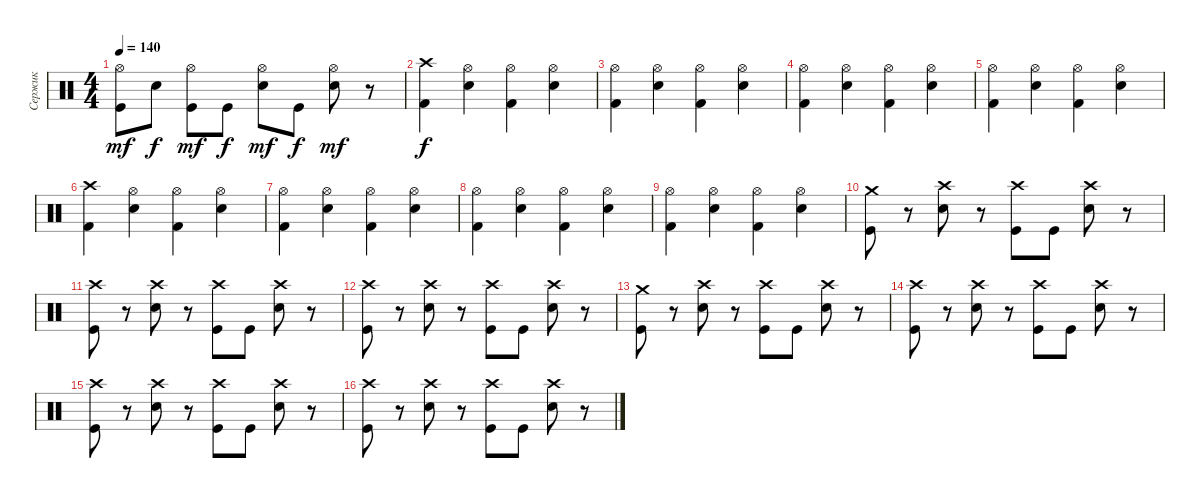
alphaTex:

\track ("Сержик" "Сержик") {instrument percussion}
\staff {score}
\articulation defaults
\ts (4 4)
\tempo 140
\clef neutral
\ks c
("Hi-Hat (open)" "Kick (hit)").8{dy mf} "Electric Snare (hit)".8{dy f} ("Hi-Hat (open)" "Kick (hit)").8{dy mf} "Kick (hit)".8{dy f} ("Hi-Hat (open)" "Electric Snare (hit)").8{dy mf} "Kick (hit)".8{dy f} ("Hi-Hat (open)" "Electric Snare (hit)").8{dy mf} r.8 |
("Crash high (hit)" "Kick (hit) 2").4{dy f} ("Hi-Hat (open)" "Electric Snare (hit)").4 ("Hi-Hat (open)" "Kick (hit) 2").4 ("Hi-Hat (open)" "Electric Snare (hit)").4 |
("Hi-Hat (open)" "Kick (hit) 2").4 ("Hi-Hat (open)" "Electric Snare (hit)").4 ("Hi-Hat (open)" "Kick (hit) 2").4 ("Hi-Hat (open)" "Electric Snare (hit)").4 |
("Hi-Hat (open)" "Kick (hit) 2").4 ("Hi-Hat (open)" "Electric Snare (hit)").4 ("Hi-Hat (open)" "Kick (hit) 2").4 ("Hi-Hat (open)" "Electric Snare (hit)").4 |
("Hi-Hat (open)" "Kick (hit) 2").4 ("Hi-Hat (open)" "Electric Snare (hit)").4 ("Hi-Hat (open)" "Kick (hit) 2").4 ("Hi-Hat (open)" "Electric Snare (hit)").4 |
("Crash high (hit)" "Kick (hit) 2").4 ("Hi-Hat (open)" "Electric Snare (hit)").4 ("Hi-Hat (open)" "Kick (hit) 2").4 ("Hi-Hat (open)" "Electric Snare (hit)").4 |
("Hi-Hat (open)" "Kick (hit) 2").4 ("Hi-Hat (open)" "Electric Snare (hit)").4 ("Hi-Hat (open)" "Kick (hit) 2").4 ("Hi-Hat (open)" "Electric Snare (hit)").4 |
("Hi-Hat (open)" "Kick (hit) 2").4 ("Hi-Hat (open)" "Electric Snare (hit)").4 ("Hi-Hat (open)" "Kick (hit) 2").4 ("Hi-Hat (open)" "Electric Snare (hit)").4 |
("Hi-Hat (open)" "Kick (hit) 2").4 ("Hi-Hat (open)" "Electric Snare (hit)").4 ("Hi-Hat (open)" "Kick (hit) 2").4 ("Hi-Hat (open)" "Electric Snare (hit)").4 |
("Crash medium (hit)" "Kick (hit)").8 r.8 ("Crash high (hit)" "Electric Snare (hit)").8 r.8 ("Crash high (hit)" "Kick (hit)").8 "Kick (hit)".8 ("Crash high (hit)" "Electric Snare (hit)").8 r.8 |
("Crash high (hit)" "Kick (hit)").8 r.8 ("Crash high (hit)" "Electric Snare (hit)").8 r.8 ("Crash high (hit)" "Kick (hit)").8 "Kick (hit)".8 ("Crash high (hit)" "Electric Snare (hit)").8 r.8 |
("Crash high (hit)" "Kick (hit)").8 r.8 ("Crash high (hit)" "Electric Snare (hit)").8 r.8 ("Crash high (hit)" "Kick (hit)").8 "Kick (hit)".8 ("Crash high (hit)" "Electric Snare (hit)").8 r.8 |
("Crash medium (hit)" "Kick (hit)").8 r.8 ("Crash high (hit)" "Electric Snare (hit)").8 r.8 ("Crash high (hit)" "Kick (hit)").8 "Kick (hit)".8 ("Crash high (hit)" "Electric Snare (hit)").8 r.8 |
("Crash high (hit)" "Kick (hit)").8 r.8 ("Crash high (hit)" "Electric Snare (hit)").8 r.8 ("Crash high (hit)" "Kick (hit)").8 "Kick (hit)".8 ("Crash high (hit)" "Electric Snare (hit)").8 r.8 |
("Crash high (hit)" "Kick (hit)").8 r.8 ("Crash high (hit)" "Electric Snare (hit)").8 r.8 ("Crash high (hit)" "Kick (hit)").8 "Kick (hit)".8 ("Crash high (hit)" "Electric Snare (hit)").8 r.8 |
("Crash high (hit)" "Kick (hit)").8 r.8 ("Crash high (hit)" "Electric Snare (hit)").8 r.8 ("Crash high (hit)" "Kick (hit)").8 "Kick (hit)".8 ("Crash high (hit)" "Electric Snare (hit)").8 r.8
